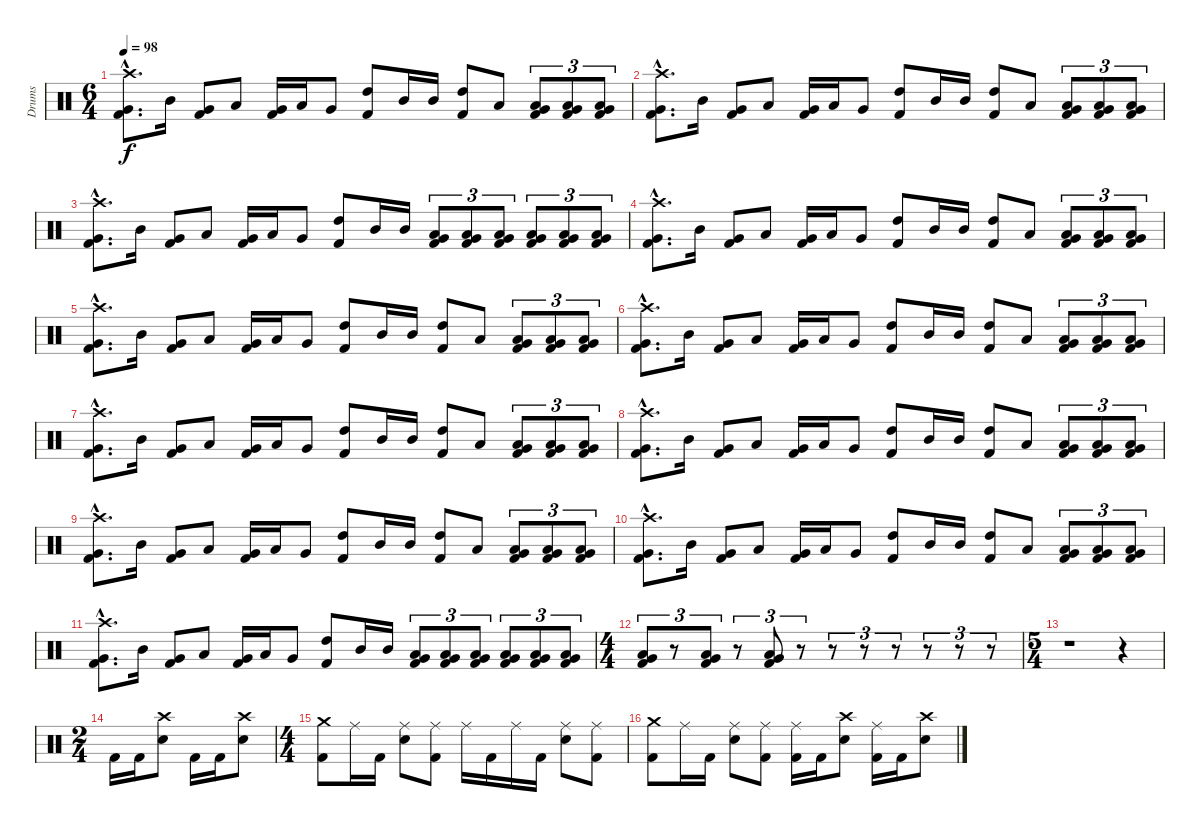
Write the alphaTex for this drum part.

\track ("Drums" "Drums") {instrument percussion}
\staff {score}
\articulation defaults
\ts (6 4)
\tempo 98
\clef neutral
\ks c
("Crash high (hit)"{hac} "Very Low Tom (hit)"{hac} "Kick (hit) 2"{hac}).8{d dy f} "Mid Tom (hit)".16 ("Very Low Tom (hit)" "Kick (hit) 2").8 "Low Tom (hit)".8 ("Very Low Tom (hit)" "Kick (hit) 2").16 "Low Tom (hit)".16 "Very Low Tom (hit)".8 ("High Tom (hit)" "Kick (hit) 2").8 "Mid Tom (hit)".16 "Mid Tom (hit)".16 ("High Tom (hit)" "Kick (hit) 2").8 "Low Tom (hit)".8 ("Low Tom (hit)" "Very Low Tom (hit)" "Kick (hit) 2").8{tu (3 2)} ("Low Tom (hit)" "Very Low Tom (hit)" "Kick (hit) 2").8{tu (3 2)} ("Low Tom (hit)" "Very Low Tom (hit)" "Kick (hit) 2").8{tu (3 2)} |
("Crash high (hit)"{hac} "Very Low Tom (hit)"{hac} "Kick (hit) 2"{hac}).8{d} "Mid Tom (hit)".16 ("Very Low Tom (hit)" "Kick (hit) 2").8 "Low Tom (hit)".8 ("Very Low Tom (hit)" "Kick (hit) 2").16 "Low Tom (hit)".16 "Very Low Tom (hit)".8 ("High Tom (hit)" "Kick (hit) 2").8 "Mid Tom (hit)".16 "Mid Tom (hit)".16 ("High Tom (hit)" "Kick (hit) 2").8 "Low Tom (hit)".8 ("Low Tom (hit)" "Very Low Tom (hit)" "Kick (hit) 2").8{tu (3 2)} ("Low Tom (hit)" "Very Low Tom (hit)" "Kick (hit) 2").8{tu (3 2)} ("Low Tom (hit)" "Very Low Tom (hit)" "Kick (hit) 2").8{tu (3 2)} |
("Crash high (hit)"{hac} "Very Low Tom (hit)"{hac} "Kick (hit) 2"{hac}).8{d} "Mid Tom (hit)".16 ("Very Low Tom (hit)" "Kick (hit) 2").8 "Low Tom (hit)".8 ("Very Low Tom (hit)" "Kick (hit) 2").16 "Low Tom (hit)".16 "Very Low Tom (hit)".8 ("High Tom (hit)" "Kick (hit) 2").8 "Mid Tom (hit)".16 "Mid Tom (hit)".16 ("Low Tom (hit)" "Very Low Tom (hit)" "Kick (hit) 2").8{tu (3 2)} ("Low Tom (hit)" "Very Low Tom (hit)" "Kick (hit) 2").8{tu (3 2)} ("Low Tom (hit)" "Very Low Tom (hit)" "Kick (hit) 2").8{tu (3 2)} ("Low Tom (hit)" "Very Low Tom (hit)" "Kick (hit) 2").8{tu (3 2)} ("Low Tom (hit)" "Very Low Tom (hit)" "Kick (hit) 2").8{tu (3 2)} ("Low Tom (hit)" "Very Low Tom (hit)" "Kick (hit) 2").8{tu (3 2)} |
("Crash high (hit)"{hac} "Very Low Tom (hit)"{hac} "Kick (hit) 2"{hac}).8{d} "Mid Tom (hit)".16 ("Very Low Tom (hit)" "Kick (hit) 2").8 "Low Tom (hit)".8 ("Very Low Tom (hit)" "Kick (hit) 2").16 "Low Tom (hit)".16 "Very Low Tom (hit)".8 ("High Tom (hit)" "Kick (hit) 2").8 "Mid Tom (hit)".16 "Mid Tom (hit)".16 ("High Tom (hit)" "Kick (hit) 2").8 "Low Tom (hit)".8 ("Low Tom (hit)" "Very Low Tom (hit)" "Kick (hit) 2").8{tu (3 2)} ("Low Tom (hit)" "Very Low Tom (hit)" "Kick (hit) 2").8{tu (3 2)} ("Low Tom (hit)" "Very Low Tom (hit)" "Kick (hit) 2").8{tu (3 2)} |
("Crash high (hit)"{hac} "Very Low Tom (hit)"{hac} "Kick (hit) 2"{hac}).8{d} "Mid Tom (hit)".16 ("Very Low Tom (hit)" "Kick (hit) 2").8 "Low Tom (hit)".8 ("Very Low Tom (hit)" "Kick (hit) 2").16 "Low Tom (hit)".16 "Very Low Tom (hit)".8 ("High Tom (hit)" "Kick (hit) 2").8 "Mid Tom (hit)".16 "Mid Tom (hit)".16 ("High Tom (hit)" "Kick (hit) 2").8 "Low Tom (hit)".8 ("Low Tom (hit)" "Very Low Tom (hit)" "Kick (hit) 2").8{tu (3 2)} ("Low Tom (hit)" "Very Low Tom (hit)" "Kick (hit) 2").8{tu (3 2)} ("Low Tom (hit)" "Very Low Tom (hit)" "Kick (hit) 2").8{tu (3 2)} |
("Crash high (hit)"{hac} "Very Low Tom (hit)"{hac} "Kick (hit) 2"{hac}).8{d} "Mid Tom (hit)".16 ("Very Low Tom (hit)" "Kick (hit) 2").8 "Low Tom (hit)".8 ("Very Low Tom (hit)" "Kick (hit) 2").16 "Low Tom (hit)".16 "Very Low Tom (hit)".8 ("High Tom (hit)" "Kick (hit) 2").8 "Mid Tom (hit)".16 "Mid Tom (hit)".16 ("High Tom (hit)" "Kick (hit) 2").8 "Low Tom (hit)".8 ("Low Tom (hit)" "Very Low Tom (hit)" "Kick (hit) 2").8{tu (3 2)} ("Low Tom (hit)" "Very Low Tom (hit)" "Kick (hit) 2").8{tu (3 2)} ("Low Tom (hit)" "Very Low Tom (hit)" "Kick (hit) 2").8{tu (3 2)} |
("Crash high (hit)"{hac} "Very Low Tom (hit)"{hac} "Kick (hit) 2"{hac}).8{d} "Mid Tom (hit)".16 ("Very Low Tom (hit)" "Kick (hit) 2").8 "Low Tom (hit)".8 ("Very Low Tom (hit)" "Kick (hit) 2").16 "Low Tom (hit)".16 "Very Low Tom (hit)".8 ("High Tom (hit)" "Kick (hit) 2").8 "Mid Tom (hit)".16 "Mid Tom (hit)".16 ("High Tom (hit)" "Kick (hit) 2").8 "Low Tom (hit)".8 ("Low Tom (hit)" "Very Low Tom (hit)" "Kick (hit) 2").8{tu (3 2)} ("Low Tom (hit)" "Very Low Tom (hit)" "Kick (hit) 2").8{tu (3 2)} ("Low Tom (hit)" "Very Low Tom (hit)" "Kick (hit) 2").8{tu (3 2)} |
("Crash high (hit)"{hac} "Very Low Tom (hit)"{hac} "Kick (hit) 2"{hac}).8{d} "Mid Tom (hit)".16 ("Very Low Tom (hit)" "Kick (hit) 2").8 "Low Tom (hit)".8 ("Very Low Tom (hit)" "Kick (hit) 2").16 "Low Tom (hit)".16 "Very Low Tom (hit)".8 ("High Tom (hit)" "Kick (hit) 2").8 "Mid Tom (hit)".16 "Mid Tom (hit)".16 ("High Tom (hit)" "Kick (hit) 2").8 "Low Tom (hit)".8 ("Low Tom (hit)" "Very Low Tom (hit)" "Kick (hit) 2").8{tu (3 2)} ("Low Tom (hit)" "Very Low Tom (hit)" "Kick (hit) 2").8{tu (3 2)} ("Low Tom (hit)" "Very Low Tom (hit)" "Kick (hit) 2").8{tu (3 2)} |
("Crash high (hit)"{hac} "Very Low Tom (hit)"{hac} "Kick (hit) 2"{hac}).8{d} "Mid Tom (hit)".16 ("Very Low Tom (hit)" "Kick (hit) 2").8 "Low Tom (hit)".8 ("Very Low Tom (hit)" "Kick (hit) 2").16 "Low Tom (hit)".16 "Very Low Tom (hit)".8 ("High Tom (hit)" "Kick (hit) 2").8 "Mid Tom (hit)".16 "Mid Tom (hit)".16 ("High Tom (hit)" "Kick (hit) 2").8 "Low Tom (hit)".8 ("Low Tom (hit)" "Very Low Tom (hit)" "Kick (hit) 2").8{tu (3 2)} ("Low Tom (hit)" "Very Low Tom (hit)" "Kick (hit) 2").8{tu (3 2)} ("Low Tom (hit)" "Very Low Tom (hit)" "Kick (hit) 2").8{tu (3 2)} |
("Crash high (hit)"{hac} "Very Low Tom (hit)"{hac} "Kick (hit) 2"{hac}).8{d} "Mid Tom (hit)".16 ("Very Low Tom (hit)" "Kick (hit) 2").8 "Low Tom (hit)".8 ("Very Low Tom (hit)" "Kick (hit) 2").16 "Low Tom (hit)".16 "Very Low Tom (hit)".8 ("High Tom (hit)" "Kick (hit) 2").8 "Mid Tom (hit)".16 "Mid Tom (hit)".16 ("High Tom (hit)" "Kick (hit) 2").8 "Low Tom (hit)".8 ("Low Tom (hit)" "Very Low Tom (hit)" "Kick (hit) 2").8{tu (3 2)} ("Low Tom (hit)" "Very Low Tom (hit)" "Kick (hit) 2").8{tu (3 2)} ("Low Tom (hit)" "Very Low Tom (hit)" "Kick (hit) 2").8{tu (3 2)} |
("Crash high (hit)"{hac} "Very Low Tom (hit)"{hac} "Kick (hit) 2"{hac}).8{d} "Mid Tom (hit)".16 ("Very Low Tom (hit)" "Kick (hit) 2").8 "Low Tom (hit)".8 ("Very Low Tom (hit)" "Kick (hit) 2").16 "Low Tom (hit)".16 "Very Low Tom (hit)".8 ("High Tom (hit)" "Kick (hit) 2").8 "Mid Tom (hit)".16 "Mid Tom (hit)".16 ("Low Tom (hit)" "Very Low Tom (hit)" "Kick (hit) 2").8{tu (3 2)} ("Low Tom (hit)" "Very Low Tom (hit)" "Kick (hit) 2").8{tu (3 2)} ("Low Tom (hit)" "Very Low Tom (hit)" "Kick (hit) 2").8{tu (3 2)} ("Low Tom (hit)" "Very Low Tom (hit)" "Kick (hit) 2").8{tu (3 2)} ("Low Tom (hit)" "Very Low Tom (hit)" "Kick (hit) 2").8{tu (3 2)} ("Low Tom (hit)" "Very Low Tom (hit)" "Kick (hit) 2").8{tu (3 2)} |
\ts (4 4)
("Low Tom (hit)" "Very Low Tom (hit)" "Kick (hit) 2").8{tu (3 2)} r.8{tu (3 2)} ("Low Tom (hit)" "Very Low Tom (hit)" "Kick (hit) 2").8{tu (3 2)} r.8{tu (3 2)} ("Low Tom (hit)" "Very Low Tom (hit)" "Kick (hit) 2").8{tu (3 2)} r.8{tu (3 2)} r.8{tu (3 2)} r.8{tu (3 2)} r.8{tu (3 2)} r.8{tu (3 2)} r.8{tu (3 2)} r.8{tu (3 2)} |
\ts (5 4)
r.1 r.4 |
\ts (2 4)
"Kick (hit) 2".16 "Kick (hit) 2".16 ("Crash high (hit)" "Snare (hit) 2").8 "Kick (hit) 2".16 "Kick (hit) 2".16 ("Crash high (hit)" "Snare (hit) 2").8 |
\ts (4 4)
("Crash medium (hit)" "Kick (hit) 2").8 "Ride (middle)".16 "Kick (hit) 2".16 ("Ride (middle)" "Snare (hit) 2").8 ("Ride (middle)" "Kick (hit) 2").8 "Ride (middle)".16 "Kick (hit) 2".16 "Ride (middle)".16 "Kick (hit) 2".16 ("Ride (middle)" "Snare (hit) 2").8 ("Ride (middle)" "Kick (hit) 2").8 |
("Crash medium (hit)" "Kick (hit) 2").8 "Ride (middle)".16 "Kick (hit) 2".16 ("Ride (middle)" "Snare (hit) 2").8 ("Ride (middle)" "Kick (hit) 2").8 ("Ride (middle)" "Kick (hit) 2").16 "Kick (hit) 2".16 ("Crash high (hit)" "Snare (hit) 2").8 ("Ride (middle)" "Kick (hit) 2").16 "Kick (hit) 2".16 ("Crash high (hit)" "Snare (hit) 2").8
